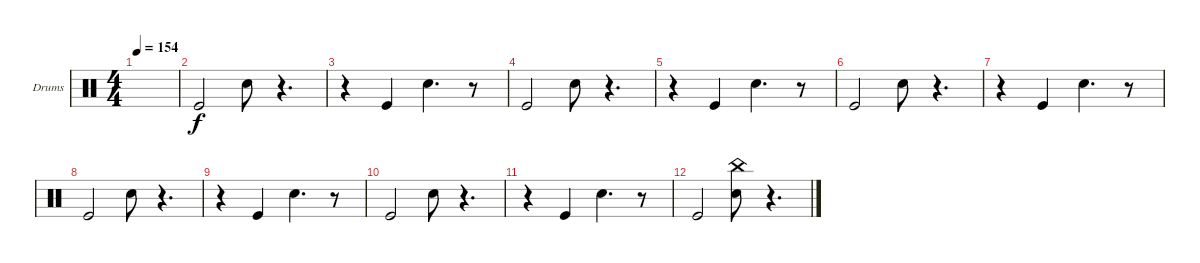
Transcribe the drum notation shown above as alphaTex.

\defaultSystemsLayout 4
\bracketExtendMode groupsimilarinstruments
\firstSystemTrackNameOrientation horizontal
\otherSystemsTrackNameOrientation horizontal
\track ("Drumkit" "Drums") {instrument percussion}
\staff {score}
\articulation defaults
\ts (4 4)
\tempo 154
\clef neutral
\ks c
|
"Kick (hit)".2 "Snare (hit) 2".8 r.4{d} |
r.4 "Kick (hit)".4 "Snare (hit) 2".4{d} r.8 |
"Kick (hit)".2 "Snare (hit) 2".8 r.4{d} |
r.4 "Kick (hit)".4 "Snare (hit) 2".4{d} r.8 |
"Kick (hit)".2 "Snare (hit) 2".8 r.4{d} |
r.4 "Kick (hit)".4 "Snare (hit) 2".4{d} r.8 |
"Kick (hit)".2 "Snare (hit) 2".8 r.4{d} |
r.4 "Kick (hit)".4 "Snare (hit) 2".4{d} r.8 |
"Kick (hit)".2 "Snare (hit) 2".8 r.4{d} |
r.4 "Kick (hit)".4 "Snare (hit) 2".4{d} r.8 |
"Kick (hit)".2 ("Snare (hit) 2" "China (hit)").8 r.4{d}
